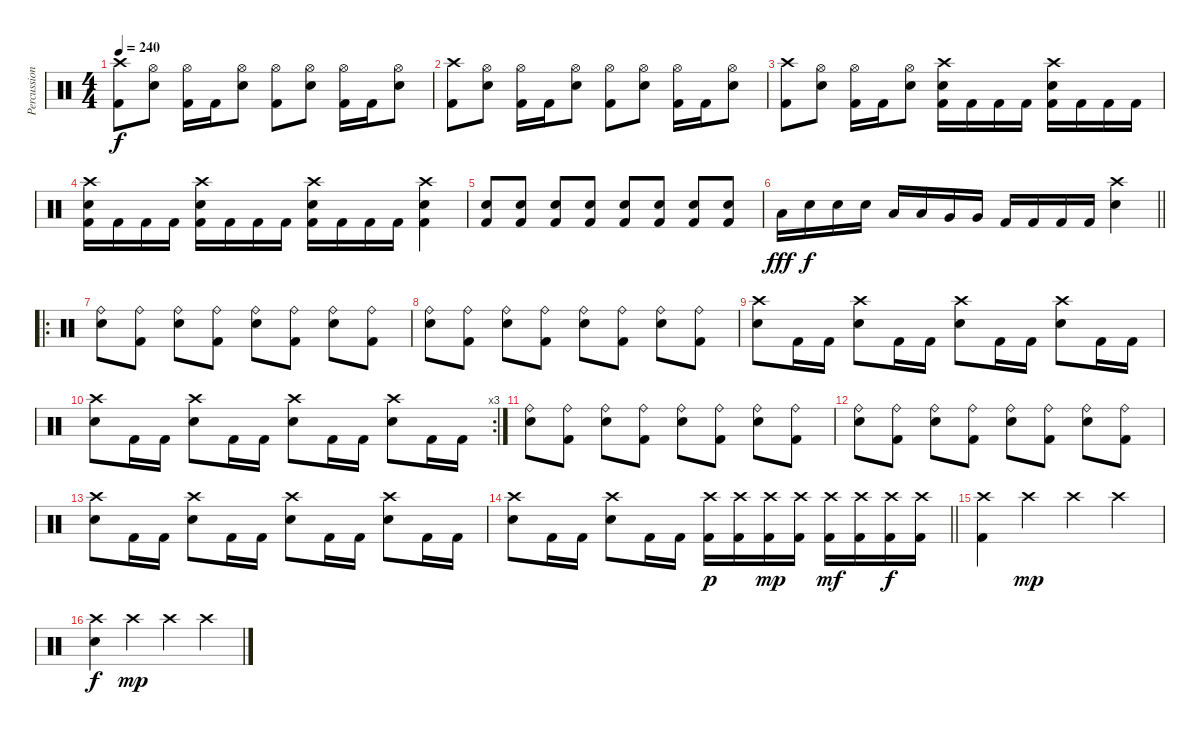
\track ("Percussion" "Percussion") {instrument percussion}
\staff {score}
\articulation defaults
\ts (4 4)
\tempo 240
\clef neutral
\ks c
("Crash high (hit)" "Kick (hit) 2").8{dy f} ("Hi-Hat (open)" "Snare (hit) 2").8 ("Hi-Hat (open)" "Kick (hit) 2").16 "Kick (hit) 2".16 ("Hi-Hat (open)" "Snare (hit) 2").8 ("Hi-Hat (open)" "Kick (hit) 2").8 ("Hi-Hat (open)" "Snare (hit) 2").8 ("Hi-Hat (open)" "Kick (hit) 2").16 "Kick (hit) 2".16 ("Hi-Hat (open)" "Snare (hit) 2").8 |
("Crash high (hit)" "Kick (hit) 2").8 ("Hi-Hat (open)" "Snare (hit) 2").8 ("Hi-Hat (open)" "Kick (hit) 2").16 "Kick (hit) 2".16 ("Hi-Hat (open)" "Snare (hit) 2").8 ("Hi-Hat (open)" "Kick (hit) 2").8 ("Hi-Hat (open)" "Snare (hit) 2").8 ("Hi-Hat (open)" "Kick (hit) 2").16 "Kick (hit) 2".16 ("Hi-Hat (open)" "Snare (hit) 2").8 |
("Crash high (hit)" "Kick (hit) 2").8 ("Hi-Hat (open)" "Snare (hit) 2").8 ("Hi-Hat (open)" "Kick (hit) 2").16 "Kick (hit) 2".16 ("Hi-Hat (open)" "Snare (hit) 2").8 ("Crash high (hit)" "Snare (hit) 2" "Kick (hit) 2").16 "Kick (hit) 2".16 "Kick (hit) 2".16 "Kick (hit) 2".16 ("Crash high (hit)" "Snare (hit) 2" "Kick (hit) 2").16 "Kick (hit) 2".16 "Kick (hit) 2".16 "Kick (hit) 2".16 |
("Crash high (hit)" "Snare (hit) 2" "Kick (hit) 2").16 "Kick (hit) 2".16 "Kick (hit) 2".16 "Kick (hit) 2".16 ("Crash high (hit)" "Snare (hit) 2" "Kick (hit) 2").16 "Kick (hit) 2".16 "Kick (hit) 2".16 "Kick (hit) 2".16 ("Crash high (hit)" "Snare (hit) 2" "Kick (hit) 2").16 "Kick (hit) 2".16 "Kick (hit) 2".16 "Kick (hit) 2".16 ("Crash high (hit)" "Snare (hit) 2" "Kick (hit) 2").4 |
("Snare (hit) 2" "Kick (hit) 2").8 ("Snare (hit) 2" "Kick (hit) 2").8 ("Snare (hit) 2" "Kick (hit) 2").8 ("Snare (hit) 2" "Kick (hit) 2").8 ("Snare (hit) 2" "Kick (hit) 2").8 ("Snare (hit) 2" "Kick (hit) 2").8 ("Snare (hit) 2" "Kick (hit) 2").8 ("Snare (hit) 2" "Kick (hit) 2").8 |
\barLineRight lightlight "Low Tom (hit)".16{dy fff} "Snare (hit) 2".16{dy f} "Snare (hit) 2".16 "Snare (hit) 2".16 "Low Tom (hit)".16 "Low Tom (hit)".16 "Very Low Tom (hit)".16 "Very Low Tom (hit)".16 "Kick (hit) 2".16 "Kick (hit) 2".16 "Kick (hit) 2".16 "Kick (hit) 2".16
("Crash high (hit)" "Snare (hit) 2").4 |
\ro
("Ride (bell)" "Snare (hit) 2").8 ("Ride (bell)" "Kick (hit) 2").8 ("Ride (bell)" "Snare (hit) 2").8 ("Ride (bell)" "Kick (hit) 2").8 ("Ride (bell)" "Snare (hit) 2").8 ("Ride (bell)" "Kick (hit) 2").8 ("Ride (bell)" "Snare (hit) 2").8 ("Ride (bell)" "Kick (hit) 2").8 |
("Ride (bell)" "Snare (hit) 2").8 ("Ride (bell)" "Kick (hit) 2").8 ("Ride (bell)" "Snare (hit) 2").8 ("Ride (bell)" "Kick (hit) 2").8 ("Ride (bell)" "Snare (hit) 2").8 ("Ride (bell)" "Kick (hit) 2").8 ("Ride (bell)" "Snare (hit) 2").8 ("Ride (bell)" "Kick (hit) 2").8 |
("Crash high (hit)" "Snare (hit) 2").8 "Kick (hit) 2".16 "Kick (hit) 2".16 ("Crash high (hit)" "Snare (hit) 2").8 "Kick (hit) 2".16 "Kick (hit) 2".16 ("Crash high (hit)" "Snare (hit) 2").8 "Kick (hit) 2".16 "Kick (hit) 2".16 ("Crash high (hit)" "Snare (hit) 2").8 "Kick (hit) 2".16 "Kick (hit) 2".16 |
\rc 3
("Crash high (hit)" "Snare (hit) 2").8 "Kick (hit) 2".16 "Kick (hit) 2".16 ("Crash high (hit)" "Snare (hit) 2").8 "Kick (hit) 2".16 "Kick (hit) 2".16 ("Crash high (hit)" "Snare (hit) 2").8 "Kick (hit) 2".16 "Kick (hit) 2".16 ("Crash high (hit)" "Snare (hit) 2").8 "Kick (hit) 2".16 "Kick (hit) 2".16 |
("Ride (bell)" "Snare (hit) 2").8 ("Ride (bell)" "Kick (hit) 2").8 ("Ride (bell)" "Snare (hit) 2").8 ("Ride (bell)" "Kick (hit) 2").8 ("Ride (bell)" "Snare (hit) 2").8 ("Ride (bell)" "Kick (hit) 2").8 ("Ride (bell)" "Snare (hit) 2").8 ("Ride (bell)" "Kick (hit) 2").8 |
("Ride (bell)" "Snare (hit) 2").8 ("Ride (bell)" "Kick (hit) 2").8 ("Ride (bell)" "Snare (hit) 2").8 ("Ride (bell)" "Kick (hit) 2").8 ("Ride (bell)" "Snare (hit) 2").8 ("Ride (bell)" "Kick (hit) 2").8 ("Ride (bell)" "Snare (hit) 2").8 ("Ride (bell)" "Kick (hit) 2").8 |
("Crash high (hit)" "Snare (hit) 2").8 "Kick (hit) 2".16 "Kick (hit) 2".16 ("Crash high (hit)" "Snare (hit) 2").8 "Kick (hit) 2".16 "Kick (hit) 2".16 ("Crash high (hit)" "Snare (hit) 2").8 "Kick (hit) 2".16 "Kick (hit) 2".16 ("Crash high (hit)" "Snare (hit) 2").8 "Kick (hit) 2".16 "Kick (hit) 2".16 |
\barLineRight lightlight
("Crash high (hit)" "Snare (hit) 2").8 "Kick (hit) 2".16 "Kick (hit) 2".16 ("Crash high (hit)" "Snare (hit) 2").8 "Kick (hit) 2".16 "Kick (hit) 2".16 ("Crash high (hit)" "Kick (hit) 2").16{dy p} ("Crash high (hit)" "Kick (hit) 2").16 ("Crash high (hit)" "Kick (hit) 2").16{dy mp} ("Crash high (hit)" "Kick (hit) 2").16 ("Crash high (hit)" "Kick (hit) 2").16{dy mf} ("Crash high (hit)" "Kick (hit) 2").16 ("Crash high (hit)" "Kick (hit) 2").16{dy f} ("Crash high (hit)" "Kick (hit) 2").16 |
("Crash high (hit)" "Kick (hit) 2").4 "Crash high (hit)".4{dy mp} "Crash high (hit)".4 "Crash high (hit)".4 |
("Crash high (hit)" "Snare (hit) 2").4{dy f} "Crash high (hit)".4{dy mp} "Crash high (hit)".4 "Crash high (hit)".4
